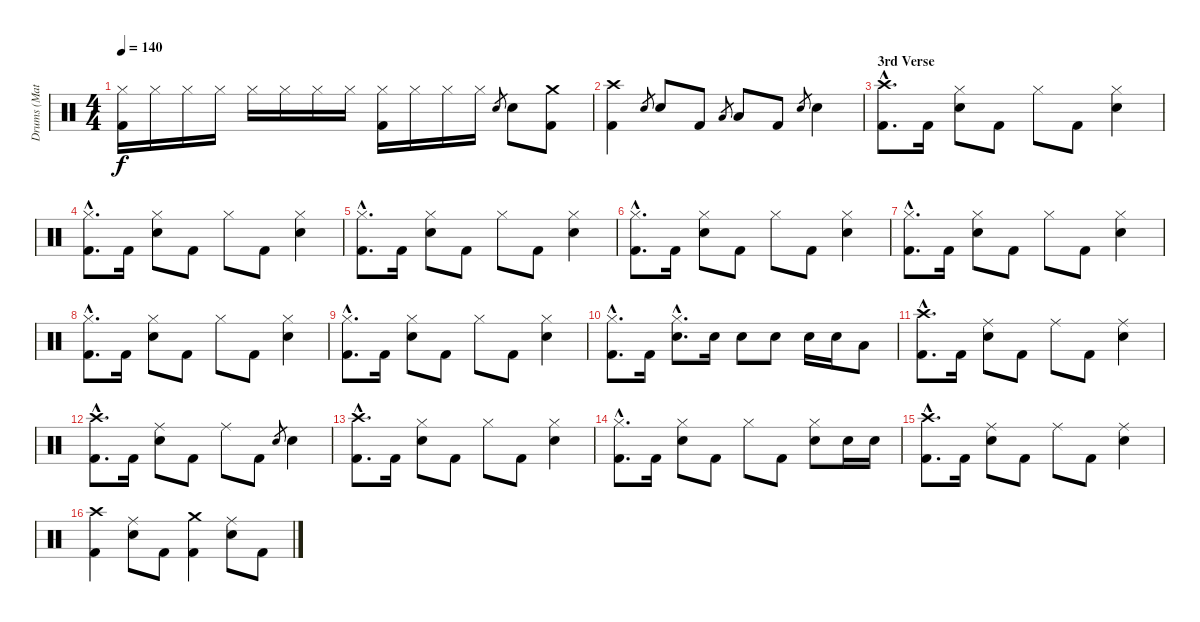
\track ("Drums (Matt)" "Drums (Mat") {instrument percussion}
\staff {score}
\articulation defaults
\ts (4 4)
\tempo 140
\clef neutral
\ks c
("Hi-Hat (closed)" "Kick (hit) 2").16{dy f} "Hi-Hat (closed)".16 "Hi-Hat (closed)".16 "Hi-Hat (closed)".16 "Hi-Hat (closed)".16 "Hi-Hat (closed)".16 "Hi-Hat (closed)".16 "Hi-Hat (closed)".16 ("Hi-Hat (closed)" "Kick (hit) 2").16 "Hi-Hat (closed)".16 "Hi-Hat (closed)".16 "Hi-Hat (closed)".16 "Snare (hit) 2".8{gr} "Snare (hit) 2".8 ("Crash medium (hit)" "Kick (hit) 2").8 |
("Crash high (hit)" "Kick (hit) 2").4 "Snare (hit) 2".8{gr} "Snare (hit) 2".8 "Kick (hit) 2".8 "Low Tom (hit)".8{gr} "Low Tom (hit)".8 "Kick (hit) 2".8 "Snare (hit) 2".8{gr} "Snare (hit) 2".4 |
\section ("" "3rd Verse")
("Crash high (hit)"{hac} "Kick (hit) 2"{hac}).8{d} "Kick (hit) 2".16 ("Hi-Hat (closed)" "Snare (hit) 2").8 "Kick (hit) 2".8 "Hi-Hat (closed)".8 "Kick (hit) 2".8 ("Hi-Hat (closed)" "Snare (hit) 2").4 |
("Hi-Hat (closed)"{hac} "Kick (hit) 2"{hac}).8{d} "Kick (hit) 2".16 ("Hi-Hat (closed)" "Snare (hit) 2").8 "Kick (hit) 2".8 "Hi-Hat (closed)".8 "Kick (hit) 2".8 ("Hi-Hat (closed)" "Snare (hit) 2").4 |
("Hi-Hat (closed)"{hac} "Kick (hit) 2"{hac}).8{d} "Kick (hit) 2".16 ("Hi-Hat (closed)" "Snare (hit) 2").8 "Kick (hit) 2".8 "Hi-Hat (closed)".8 "Kick (hit) 2".8 ("Hi-Hat (closed)" "Snare (hit) 2").4 |
("Hi-Hat (closed)"{hac} "Kick (hit) 2"{hac}).8{d} "Kick (hit) 2".16 ("Hi-Hat (closed)" "Snare (hit) 2").8 "Kick (hit) 2".8 "Hi-Hat (closed)".8 "Kick (hit) 2".8 ("Hi-Hat (closed)" "Snare (hit) 2").4 |
("Hi-Hat (closed)"{hac} "Kick (hit) 2"{hac}).8{d} "Kick (hit) 2".16 ("Hi-Hat (closed)" "Snare (hit) 2").8 "Kick (hit) 2".8 "Hi-Hat (closed)".8 "Kick (hit) 2".8 ("Hi-Hat (closed)" "Snare (hit) 2").4 |
("Hi-Hat (closed)"{hac} "Kick (hit) 2"{hac}).8{d} "Kick (hit) 2".16 ("Hi-Hat (closed)" "Snare (hit) 2").8 "Kick (hit) 2".8 "Hi-Hat (closed)".8 "Kick (hit) 2".8 ("Hi-Hat (closed)" "Snare (hit) 2").4 |
("Hi-Hat (closed)"{hac} "Kick (hit) 2"{hac}).8{d} "Kick (hit) 2".16 ("Hi-Hat (closed)" "Snare (hit) 2").8 "Kick (hit) 2".8 "Hi-Hat (closed)".8 "Kick (hit) 2".8 ("Hi-Hat (closed)" "Snare (hit) 2").4 |
("Hi-Hat (closed)"{hac} "Kick (hit) 2"{hac}).8{d} "Kick (hit) 2".16 ("Hi-Hat (closed)"{hac} "Snare (hit) 2"{hac}).8{d} "Snare (hit) 2".16 "Snare (hit) 2".8 "Snare (hit) 2".8 "Snare (hit) 2".16 "Snare (hit) 2".16 "Low Tom (hit)".8 |
("Crash high (hit)"{hac} "Kick (hit) 2"{hac}).8{d} "Kick (hit) 2".16 ("Ride (middle)" "Snare (hit) 2").8 "Kick (hit) 2".8 "Ride (middle)".8 "Kick (hit) 2".8 ("Ride (middle)" "Snare (hit) 2").4 |
("Crash high (hit)"{hac} "Kick (hit) 2"{hac}).8{d} "Kick (hit) 2".16 ("Ride (middle)" "Snare (hit) 2").8 "Kick (hit) 2".8 "Ride (middle)".8 "Kick (hit) 2".8 "Snare (hit) 2".8{gr} "Snare (hit) 2".4 |
("Crash high (hit)"{hac} "Kick (hit) 2"{hac}).8{d} "Kick (hit) 2".16 ("Hi-Hat (closed)" "Snare (hit) 2").8 "Kick (hit) 2".8 "Hi-Hat (closed)".8 "Kick (hit) 2".8 ("Hi-Hat (closed)" "Snare (hit) 2").4 |
("Hi-Hat (closed)"{hac} "Kick (hit) 2"{hac}).8{d} "Kick (hit) 2".16 ("Hi-Hat (closed)" "Snare (hit) 2").8 "Kick (hit) 2".8 "Hi-Hat (closed)".8 "Kick (hit) 2".8 ("Hi-Hat (closed)" "Snare (hit) 2").8 "Snare (hit) 2".16 "Snare (hit) 2".16 |
("Crash high (hit)"{hac} "Kick (hit) 2"{hac}).8{d} "Kick (hit) 2".16 ("Ride (middle)" "Snare (hit) 2").8 "Kick (hit) 2".8 "Ride (middle)".8 "Kick (hit) 2".8 ("Ride (middle)" "Snare (hit) 2").4 |
("Crash high (hit)" "Kick (hit) 2").4 ("Ride (middle)" "Snare (hit) 2").8 "Kick (hit) 2".8 ("Crash medium (hit)" "Kick (hit) 2").4 ("Ride (middle)" "Snare (hit) 2").8 "Kick (hit) 2".8
